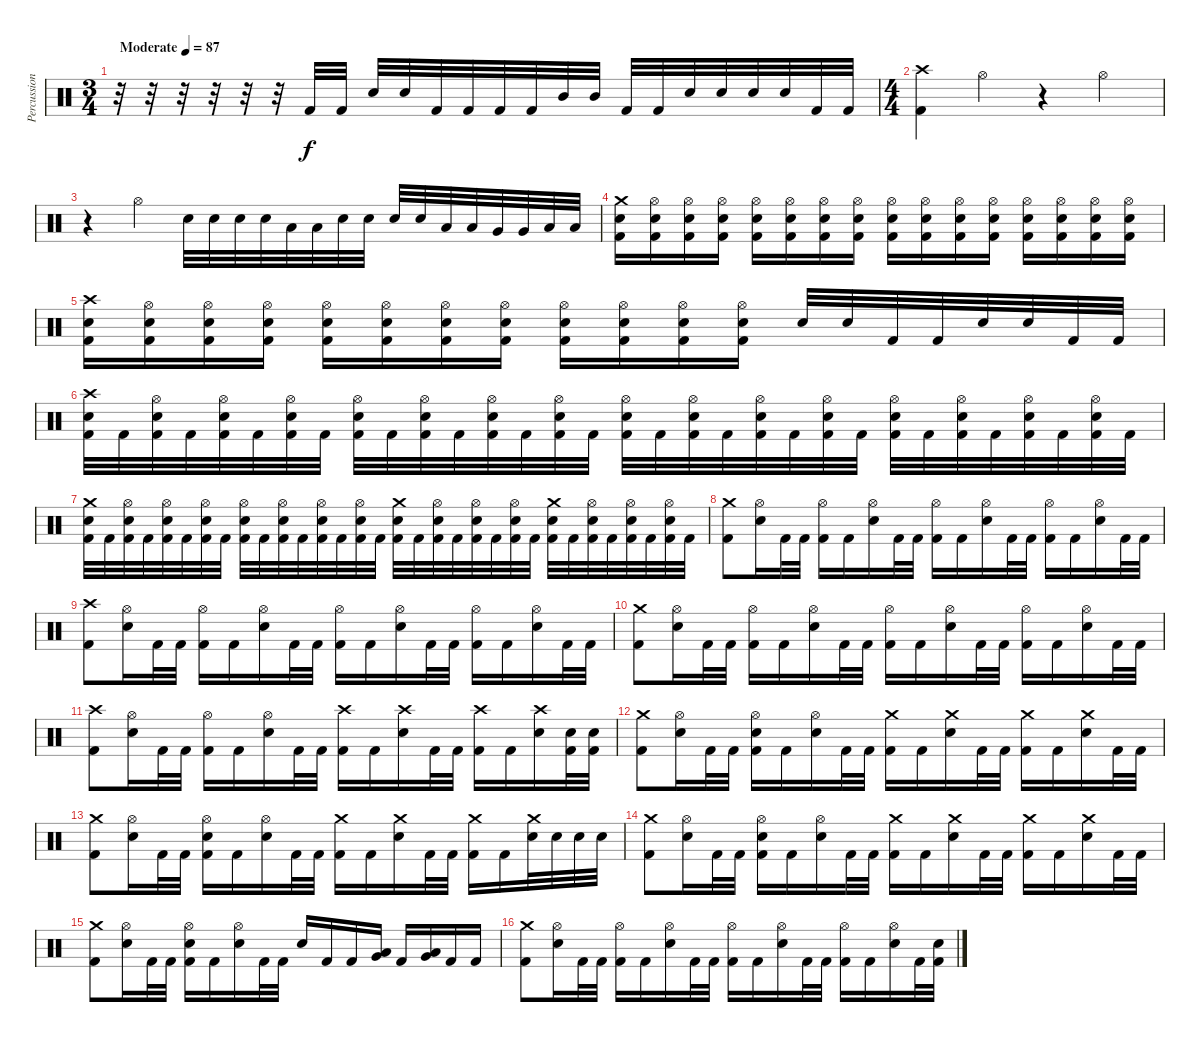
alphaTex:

\track ("Percussion" "Percussion") {instrument percussion}
\staff {score}
\articulation defaults
\ts (3 4)
\tempo (87 "Moderate")
\clef neutral
\ks c
r.32{dy f} r.32 r.32 r.32 r.32 r.32 "Kick (hit) 2".32 "Kick (hit) 2".32 "Electric Snare (hit)".32 "Electric Snare (hit)".32 "Kick (hit) 2".32 "Kick (hit) 2".32 "Kick (hit) 2".32 "Kick (hit) 2".32 "Mid Tom (hit)".32 "Mid Tom (hit)".32 "Kick (hit) 2".32 "Kick (hit) 2".32 "Electric Snare (hit)".32 "Electric Snare (hit)".32 "Electric Snare (hit)".32 "Electric Snare (hit)".32 "Kick (hit) 2".32 "Kick (hit) 2".32 |
\ts (4 4)
("Crash high (hit)" "Kick (hit) 2").4 "Hi-Hat (open)".4 r.4 "Hi-Hat (open)".4 |
r.4 "Hi-Hat (open)".4 "Electric Snare (hit)".32 "Electric Snare (hit)".32 "Electric Snare (hit)".32 "Electric Snare (hit)".32 "Low Tom (hit)".32 "Low Tom (hit)".32 "Electric Snare (hit)".32 "Electric Snare (hit)".32 "Electric Snare (hit)".32 "Electric Snare (hit)".32 "Low Tom (hit)".32 "Low Tom (hit)".32 "Very Low Tom (hit)".32 "Very Low Tom (hit)".32 "Low Floor Tom (hit)".32 "Low Floor Tom (hit)".32 |
("Crash medium (hit)" "Electric Snare (hit)" "Kick (hit) 2").16 ("Hi-Hat (open)" "Electric Snare (hit)" "Kick (hit) 2").16 ("Hi-Hat (open)" "Electric Snare (hit)" "Kick (hit) 2").16 ("Hi-Hat (open)" "Electric Snare (hit)" "Kick (hit) 2").16 ("Hi-Hat (open)" "Electric Snare (hit)" "Kick (hit) 2").16 ("Hi-Hat (open)" "Electric Snare (hit)" "Kick (hit) 2").16 ("Hi-Hat (open)" "Electric Snare (hit)" "Kick (hit) 2").16 ("Hi-Hat (open)" "Electric Snare (hit)" "Kick (hit) 2").16 ("Hi-Hat (open)" "Electric Snare (hit)" "Kick (hit) 2").16 ("Hi-Hat (open)" "Electric Snare (hit)" "Kick (hit) 2").16 ("Hi-Hat (open)" "Electric Snare (hit)" "Kick (hit) 2").16 ("Hi-Hat (open)" "Electric Snare (hit)" "Kick (hit) 2").16 ("Hi-Hat (open)" "Electric Snare (hit)" "Kick (hit) 2").16 ("Hi-Hat (open)" "Electric Snare (hit)" "Kick (hit) 2").16 ("Hi-Hat (open)" "Electric Snare (hit)" "Kick (hit) 2").16 ("Hi-Hat (open)" "Electric Snare (hit)" "Kick (hit) 2").16 |
("Crash high (hit)" "Electric Snare (hit)" "Kick (hit) 2").16 ("Hi-Hat (open)" "Electric Snare (hit)" "Kick (hit) 2").16 ("Hi-Hat (open)" "Electric Snare (hit)" "Kick (hit) 2").16 ("Hi-Hat (open)" "Electric Snare (hit)" "Kick (hit) 2").16 ("Hi-Hat (open)" "Electric Snare (hit)" "Kick (hit) 2").16 ("Hi-Hat (open)" "Electric Snare (hit)" "Kick (hit) 2").16 ("Hi-Hat (open)" "Electric Snare (hit)" "Kick (hit) 2").16 ("Hi-Hat (open)" "Electric Snare (hit)" "Kick (hit) 2").16 ("Hi-Hat (open)" "Electric Snare (hit)" "Kick (hit) 2").16 ("Hi-Hat (open)" "Electric Snare (hit)" "Kick (hit) 2").16 ("Hi-Hat (open)" "Electric Snare (hit)" "Kick (hit) 2").16 ("Hi-Hat (open)" "Electric Snare (hit)" "Kick (hit) 2").16 "Electric Snare (hit)".32 "Electric Snare (hit)".32 "Kick (hit) 2".32 "Kick (hit) 2".32 "Electric Snare (hit)".32 "Electric Snare (hit)".32 "Kick (hit) 2".32 "Kick (hit) 2".32 |
("Crash high (hit)" "Electric Snare (hit)" "Kick (hit) 2").32 "Kick (hit) 2".32 ("Hi-Hat (open)" "Electric Snare (hit)" "Kick (hit) 2").32 "Kick (hit) 2".32 ("Hi-Hat (open)" "Electric Snare (hit)" "Kick (hit) 2").32 "Kick (hit) 2".32 ("Hi-Hat (open)" "Electric Snare (hit)" "Kick (hit) 2").32 "Kick (hit) 2".32 ("Hi-Hat (open)" "Electric Snare (hit)" "Kick (hit) 2").32 "Kick (hit) 2".32 ("Hi-Hat (open)" "Electric Snare (hit)" "Kick (hit) 2").32 "Kick (hit) 2".32 ("Hi-Hat (open)" "Electric Snare (hit)" "Kick (hit) 2").32 "Kick (hit) 2".32 ("Hi-Hat (open)" "Electric Snare (hit)" "Kick (hit) 2").32 "Kick (hit) 2".32 ("Hi-Hat (open)" "Electric Snare (hit)" "Kick (hit) 2").32 "Kick (hit) 2".32 ("Hi-Hat (open)" "Electric Snare (hit)" "Kick (hit) 2").32 "Kick (hit) 2".32 ("Hi-Hat (open)" "Electric Snare (hit)" "Kick (hit) 2").32 "Kick (hit) 2".32 ("Hi-Hat (open)" "Electric Snare (hit)" "Kick (hit) 2").32 "Kick (hit) 2".32 ("Hi-Hat (open)" "Electric Snare (hit)" "Kick (hit) 2").32 "Kick (hit) 2".32 ("Hi-Hat (open)" "Electric Snare (hit)" "Kick (hit) 2").32 "Kick (hit) 2".32 ("Hi-Hat (open)" "Electric Snare (hit)" "Kick (hit) 2").32 "Kick (hit) 2".32 ("Hi-Hat (open)" "Electric Snare (hit)" "Kick (hit) 2").32 "Kick (hit) 2".32 |
("Crash medium (hit)" "Electric Snare (hit)" "Kick (hit) 2").32 "Kick (hit) 2".32 ("Hi-Hat (open)" "Electric Snare (hit)" "Kick (hit) 2").32 "Kick (hit) 2".32 ("Hi-Hat (open)" "Electric Snare (hit)" "Kick (hit) 2").32 "Kick (hit) 2".32 ("Hi-Hat (open)" "Electric Snare (hit)" "Kick (hit) 2").32 "Kick (hit) 2".32 ("Hi-Hat (open)" "Electric Snare (hit)" "Kick (hit) 2").32 "Kick (hit) 2".32 ("Hi-Hat (open)" "Electric Snare (hit)" "Kick (hit) 2").32 "Kick (hit) 2".32 ("Hi-Hat (open)" "Electric Snare (hit)" "Kick (hit) 2").32 "Kick (hit) 2".32 ("Hi-Hat (open)" "Electric Snare (hit)" "Kick (hit) 2").32 "Kick (hit) 2".32 ("Crash medium (hit)" "Electric Snare (hit)" "Kick (hit) 2").32 "Kick (hit) 2".32 ("Hi-Hat (open)" "Electric Snare (hit)" "Kick (hit) 2").32 "Kick (hit) 2".32 ("Hi-Hat (open)" "Electric Snare (hit)" "Kick (hit) 2").32 "Kick (hit) 2".32 ("Hi-Hat (open)" "Electric Snare (hit)" "Kick (hit) 2").32 "Kick (hit) 2".32 ("Crash medium (hit)" "Electric Snare (hit)" "Kick (hit) 2").32 "Kick (hit) 2".32 ("Hi-Hat (open)" "Electric Snare (hit)" "Kick (hit) 2").32 "Kick (hit) 2".32 ("Hi-Hat (open)" "Electric Snare (hit)" "Kick (hit) 2").32 "Kick (hit) 2".32 ("Hi-Hat (open)" "Electric Snare (hit)" "Kick (hit) 2").32 "Kick (hit) 2".32 |
("Crash medium (hit)" "Kick (hit) 2").8 ("Hi-Hat (open)" "Electric Snare (hit)").16 "Kick (hit) 2".32 "Kick (hit) 2".32 ("Hi-Hat (open)" "Kick (hit) 2").16 "Kick (hit) 2".16 ("Hi-Hat (open)" "Electric Snare (hit)").16 "Kick (hit) 2".32 "Kick (hit) 2".32 ("Hi-Hat (open)" "Kick (hit) 2").16 "Kick (hit) 2".16 ("Hi-Hat (open)" "Electric Snare (hit)").16 "Kick (hit) 2".32 "Kick (hit) 2".32 ("Hi-Hat (open)" "Kick (hit) 2").16 "Kick (hit) 2".16 ("Hi-Hat (open)" "Electric Snare (hit)").16 "Kick (hit) 2".32 "Kick (hit) 2".32 |
("Crash high (hit)" "Kick (hit) 2").8 ("Hi-Hat (open)" "Electric Snare (hit)").16 "Kick (hit) 2".32 "Kick (hit) 2".32 ("Hi-Hat (open)" "Kick (hit) 2").16 "Kick (hit) 2".16 ("Hi-Hat (open)" "Electric Snare (hit)").16 "Kick (hit) 2".32 "Kick (hit) 2".32 ("Hi-Hat (open)" "Kick (hit) 2").16 "Kick (hit) 2".16 ("Hi-Hat (open)" "Electric Snare (hit)").16 "Kick (hit) 2".32 "Kick (hit) 2".32 ("Hi-Hat (open)" "Kick (hit) 2").16 "Kick (hit) 2".16 ("Hi-Hat (open)" "Electric Snare (hit)").16 "Kick (hit) 2".32 "Kick (hit) 2".32 |
("Crash medium (hit)" "Kick (hit) 2").8 ("Hi-Hat (open)" "Electric Snare (hit)").16 "Kick (hit) 2".32 "Kick (hit) 2".32 ("Hi-Hat (open)" "Kick (hit) 2").16 "Kick (hit) 2".16 ("Hi-Hat (open)" "Electric Snare (hit)").16 "Kick (hit) 2".32 "Kick (hit) 2".32 ("Hi-Hat (open)" "Kick (hit) 2").16 "Kick (hit) 2".16 ("Hi-Hat (open)" "Electric Snare (hit)").16 "Kick (hit) 2".32 "Kick (hit) 2".32 ("Hi-Hat (open)" "Kick (hit) 2").16 "Kick (hit) 2".16 ("Hi-Hat (open)" "Electric Snare (hit)").16 "Kick (hit) 2".32 "Kick (hit) 2".32 |
("Crash high (hit)" "Kick (hit) 2").8 ("Hi-Hat (open)" "Electric Snare (hit)").16 "Kick (hit) 2".32 "Kick (hit) 2".32 ("Hi-Hat (open)" "Kick (hit) 2").16 "Kick (hit) 2".16 ("Hi-Hat (open)" "Electric Snare (hit)").16 "Kick (hit) 2".32 "Kick (hit) 2".32 ("Crash high (hit)" "Kick (hit) 2").16 "Kick (hit) 2".16 ("Crash high (hit)" "Electric Snare (hit)").16 "Kick (hit) 2".32 "Kick (hit) 2".32 ("Crash high (hit)" "Kick (hit) 2").16 "Kick (hit) 2".16 ("Crash high (hit)" "Electric Snare (hit)").16 ("Electric Snare (hit)" "Kick (hit) 2").32 ("Electric Snare (hit)" "Kick (hit) 2").32 |
("Crash medium (hit)" "Kick (hit) 2").8 ("Hi-Hat (open)" "Electric Snare (hit)").16 "Kick (hit) 2".32 "Kick (hit) 2".32 ("Hi-Hat (open)" "Electric Snare (hit)" "Kick (hit) 2").16 "Kick (hit) 2".16 ("Hi-Hat (open)" "Electric Snare (hit)").16 "Kick (hit) 2".32 "Kick (hit) 2".32 ("Crash medium (hit)" "Kick (hit) 2").16 "Kick (hit) 2".16 ("Crash medium (hit)" "Electric Snare (hit)").16 "Kick (hit) 2".32 "Kick (hit) 2".32 ("Crash medium (hit)" "Kick (hit) 2").16 "Kick (hit) 2".16 ("Crash medium (hit)" "Electric Snare (hit)").16 "Kick (hit) 2".32 "Kick (hit) 2".32 |
("Crash medium (hit)" "Kick (hit) 2").8 ("Hi-Hat (open)" "Electric Snare (hit)").16 "Kick (hit) 2".32 "Kick (hit) 2".32 ("Hi-Hat (open)" "Electric Snare (hit)" "Kick (hit) 2").16 "Kick (hit) 2".16 ("Hi-Hat (open)" "Electric Snare (hit)").16 "Kick (hit) 2".32 "Kick (hit) 2".32 ("Crash medium (hit)" "Kick (hit) 2").16 "Kick (hit) 2".16 ("Crash medium (hit)" "Electric Snare (hit)").16 "Kick (hit) 2".32 "Kick (hit) 2".32 ("Crash medium (hit)" "Kick (hit) 2").16 "Kick (hit) 2".16 ("Crash medium (hit)" "Electric Snare (hit)").32 "Electric Snare (hit)".32 "Electric Snare (hit)".32 "Electric Snare (hit)".32 |
("Crash medium (hit)" "Kick (hit) 2").8 ("Hi-Hat (open)" "Electric Snare (hit)").16 "Kick (hit) 2".32 "Kick (hit) 2".32 ("Hi-Hat (open)" "Electric Snare (hit)" "Kick (hit) 2").16 "Kick (hit) 2".16 ("Hi-Hat (open)" "Electric Snare (hit)").16 "Kick (hit) 2".32 "Kick (hit) 2".32 ("Crash medium (hit)" "Kick (hit) 2").16 "Kick (hit) 2".16 ("Crash medium (hit)" "Electric Snare (hit)").16 "Kick (hit) 2".32 "Kick (hit) 2".32 ("Crash medium (hit)" "Kick (hit) 2").16 "Kick (hit) 2".16 ("Crash medium (hit)" "Electric Snare (hit)").16 "Kick (hit) 2".32 "Kick (hit) 2".32 |
("Crash medium (hit)" "Kick (hit) 2").8 ("Hi-Hat (open)" "Electric Snare (hit)").16 "Kick (hit) 2".32 "Kick (hit) 2".32 ("Hi-Hat (open)" "Electric Snare (hit)" "Kick (hit) 2").16 "Kick (hit) 2".16 ("Hi-Hat (open)" "Electric Snare (hit)").16 "Kick (hit) 2".32 "Kick (hit) 2".32 "Electric Snare (hit)".16 "Kick (hit) 2".16 "Kick (hit) 2".16 ("Low Tom (hit)" "Very Low Tom (hit)").16 "Kick (hit) 2".16 ("Low Floor Tom (hit)" "Very Low Tom (hit)").16 "Kick (hit) 2".16 "Kick (hit) 2".16 |
("Crash medium (hit)" "Kick (hit) 2").8 ("Hi-Hat (open)" "Electric Snare (hit)").16 "Kick (hit) 2".32 "Kick (hit) 2".32 ("Hi-Hat (open)" "Kick (hit) 2").16 "Kick (hit) 2".16 ("Hi-Hat (open)" "Electric Snare (hit)").16 "Kick (hit) 2".32 "Kick (hit) 2".32 ("Hi-Hat (open)" "Kick (hit) 2").16 "Kick (hit) 2".16 ("Hi-Hat (open)" "Electric Snare (hit)").16 "Kick (hit) 2".32 "Kick (hit) 2".32 ("Hi-Hat (open)" "Kick (hit) 2").16 "Kick (hit) 2".16 ("Hi-Hat (open)" "Electric Snare (hit)").16 "Kick (hit) 2".32 ("Electric Snare (hit)" "Kick (hit) 2").32
